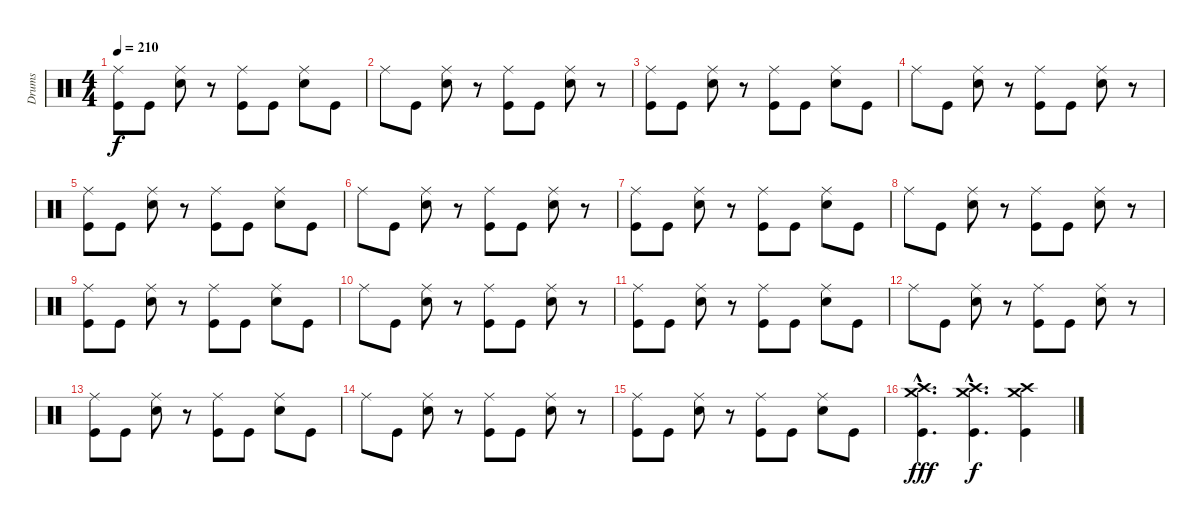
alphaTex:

\track ("Drums" "Drums") {instrument percussion}
\staff {score}
\articulation defaults
\ts (4 4)
\tempo 210
\clef neutral
\ks c
("Ride (middle)" "Kick (hit)").8{dy f} "Kick (hit)".8 ("Ride (middle)" "Snare (hit) 2").8 r.8 ("Ride (middle)" "Kick (hit)").8 "Kick (hit)".8 ("Ride (middle)" "Snare (hit) 2").8 "Kick (hit)".8 |
"Ride (middle)".8 "Kick (hit)".8 ("Ride (middle)" "Snare (hit) 2").8 r.8 ("Ride (middle)" "Kick (hit)").8 "Kick (hit)".8 ("Ride (middle)" "Snare (hit) 2").8 r.8 |
("Ride (middle)" "Kick (hit)").8 "Kick (hit)".8 ("Ride (middle)" "Snare (hit) 2").8 r.8 ("Ride (middle)" "Kick (hit)").8 "Kick (hit)".8 ("Ride (middle)" "Snare (hit) 2").8 "Kick (hit)".8 |
"Ride (middle)".8 "Kick (hit)".8 ("Ride (middle)" "Snare (hit) 2").8 r.8 ("Ride (middle)" "Kick (hit)").8 "Kick (hit)".8 ("Ride (middle)" "Snare (hit) 2").8 r.8 |
("Ride (middle)" "Kick (hit)").8 "Kick (hit)".8 ("Ride (middle)" "Snare (hit) 2").8 r.8 ("Ride (middle)" "Kick (hit)").8 "Kick (hit)".8 ("Ride (middle)" "Snare (hit) 2").8 "Kick (hit)".8 |
"Ride (middle)".8 "Kick (hit)".8 ("Ride (middle)" "Snare (hit) 2").8 r.8 ("Ride (middle)" "Kick (hit)").8 "Kick (hit)".8 ("Ride (middle)" "Snare (hit) 2").8 r.8 |
("Ride (middle)" "Kick (hit)").8 "Kick (hit)".8 ("Ride (middle)" "Snare (hit) 2").8 r.8 ("Ride (middle)" "Kick (hit)").8 "Kick (hit)".8 ("Ride (middle)" "Snare (hit) 2").8 "Kick (hit)".8 |
"Ride (middle)".8 "Kick (hit)".8 ("Ride (middle)" "Snare (hit) 2").8 r.8 ("Ride (middle)" "Kick (hit)").8 "Kick (hit)".8 ("Ride (middle)" "Snare (hit) 2").8 r.8 |
("Ride (middle)" "Kick (hit)").8 "Kick (hit)".8 ("Ride (middle)" "Snare (hit) 2").8 r.8 ("Ride (middle)" "Kick (hit)").8 "Kick (hit)".8 ("Ride (middle)" "Snare (hit) 2").8 "Kick (hit)".8 |
"Ride (middle)".8 "Kick (hit)".8 ("Ride (middle)" "Snare (hit) 2").8 r.8 ("Ride (middle)" "Kick (hit)").8 "Kick (hit)".8 ("Ride (middle)" "Snare (hit) 2").8 r.8 |
("Ride (middle)" "Kick (hit)").8 "Kick (hit)".8 ("Ride (middle)" "Snare (hit) 2").8 r.8 ("Ride (middle)" "Kick (hit)").8 "Kick (hit)".8 ("Ride (middle)" "Snare (hit) 2").8 "Kick (hit)".8 |
"Ride (middle)".8 "Kick (hit)".8 ("Ride (middle)" "Snare (hit) 2").8 r.8 ("Ride (middle)" "Kick (hit)").8 "Kick (hit)".8 ("Ride (middle)" "Snare (hit) 2").8 r.8 |
("Ride (middle)" "Kick (hit)").8 "Kick (hit)".8 ("Ride (middle)" "Snare (hit) 2").8 r.8 ("Ride (middle)" "Kick (hit)").8 "Kick (hit)".8 ("Ride (middle)" "Snare (hit) 2").8 "Kick (hit)".8 |
"Ride (middle)".8 "Kick (hit)".8 ("Ride (middle)" "Snare (hit) 2").8 r.8 ("Ride (middle)" "Kick (hit)").8 "Kick (hit)".8 ("Ride (middle)" "Snare (hit) 2").8 r.8 |
("Ride (middle)" "Kick (hit)").8 "Kick (hit)".8 ("Ride (middle)" "Snare (hit) 2").8 r.8 ("Ride (middle)" "Kick (hit)").8 "Kick (hit)".8 ("Ride (middle)" "Snare (hit) 2").8 "Kick (hit)".8 |
("Crash medium (hit)"{hac} "Crash high (hit)"{hac} "Kick (hit)"{hac}).4{d dy fff} ("Crash medium (hit)"{hac} "Crash high (hit)"{hac} "Kick (hit)"{hac}).4{d dy f} ("Crash medium (hit)" "Crash high (hit)" "Kick (hit)").4
